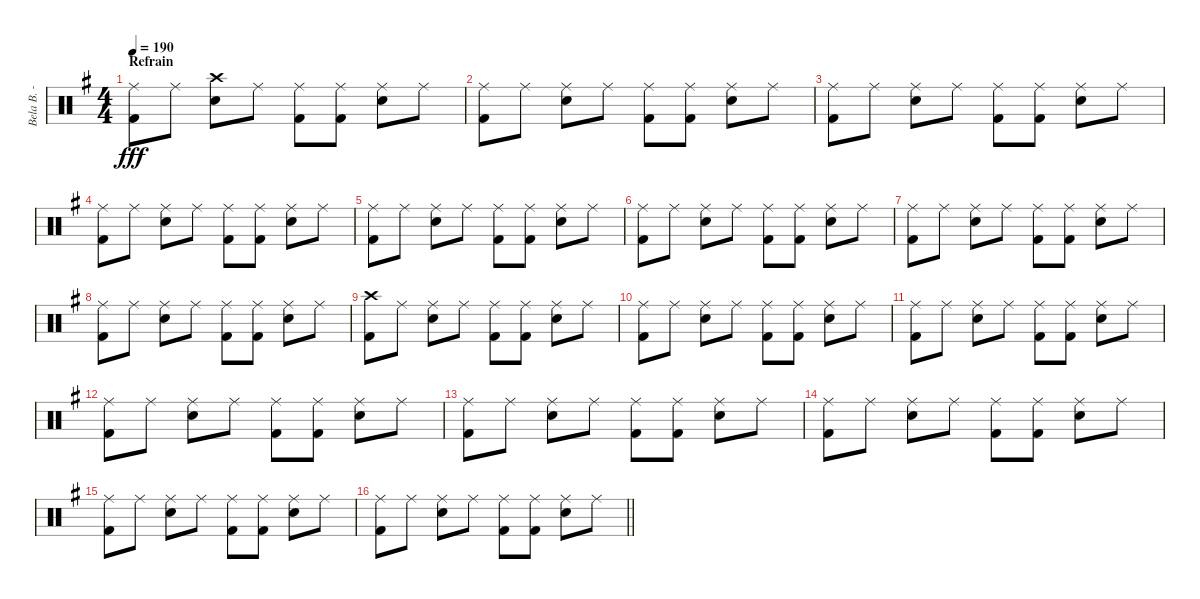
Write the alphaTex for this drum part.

\track ("Bela B. - Drums" "Bela B. - ") {instrument percussion}
\staff {score}
\articulation defaults
\ts (4 4)
\section ("" "Refrain")
\tempo 190
\clef neutral
\ks g
("Ride (middle)" "Kick (hit) 2").8{dy fff} "Ride (middle)".8 ("Crash high (hit)" "Snare (hit) 2").8 "Ride (middle)".8 ("Ride (middle)" "Kick (hit) 2").8 ("Ride (middle)" "Kick (hit) 2").8 ("Ride (middle)" "Snare (hit) 2").8 "Ride (middle)".8 |
("Ride (middle)" "Kick (hit) 2").8 "Ride (middle)".8 ("Ride (middle)" "Snare (hit) 2").8 "Ride (middle)".8 ("Ride (middle)" "Kick (hit) 2").8 ("Ride (middle)" "Kick (hit) 2").8 ("Ride (middle)" "Snare (hit) 2").8 "Ride (middle)".8 |
("Ride (middle)" "Kick (hit) 2").8 "Ride (middle)".8 ("Ride (middle)" "Snare (hit) 2").8 "Ride (middle)".8 ("Ride (middle)" "Kick (hit) 2").8 ("Ride (middle)" "Kick (hit) 2").8 ("Ride (middle)" "Snare (hit) 2").8 "Ride (middle)".8 |
("Ride (middle)" "Kick (hit) 2").8 "Ride (middle)".8 ("Ride (middle)" "Snare (hit) 2").8 "Ride (middle)".8 ("Ride (middle)" "Kick (hit) 2").8 ("Ride (middle)" "Kick (hit) 2").8 ("Ride (middle)" "Snare (hit) 2").8 "Ride (middle)".8 |
("Ride (middle)" "Kick (hit) 2").8 "Ride (middle)".8 ("Ride (middle)" "Snare (hit) 2").8 "Ride (middle)".8 ("Ride (middle)" "Kick (hit) 2").8 ("Ride (middle)" "Kick (hit) 2").8 ("Ride (middle)" "Snare (hit) 2").8 "Ride (middle)".8 |
("Ride (middle)" "Kick (hit) 2").8 "Ride (middle)".8 ("Ride (middle)" "Snare (hit) 2").8 "Ride (middle)".8 ("Ride (middle)" "Kick (hit) 2").8 ("Ride (middle)" "Kick (hit) 2").8 ("Ride (middle)" "Snare (hit) 2").8 "Ride (middle)".8 |
("Ride (middle)" "Kick (hit) 2").8 "Ride (middle)".8 ("Ride (middle)" "Snare (hit) 2").8 "Ride (middle)".8 ("Ride (middle)" "Kick (hit) 2").8 ("Ride (middle)" "Kick (hit) 2").8 ("Ride (middle)" "Snare (hit) 2").8 "Ride (middle)".8 |
("Ride (middle)" "Kick (hit) 2").8 "Ride (middle)".8 ("Ride (middle)" "Snare (hit) 2").8 "Ride (middle)".8 ("Ride (middle)" "Kick (hit) 2").8 ("Ride (middle)" "Kick (hit) 2").8 ("Ride (middle)" "Snare (hit) 2").8 "Ride (middle)".8 |
("Crash high (hit)" "Kick (hit) 2").8 "Ride (middle)".8 ("Ride (middle)" "Snare (hit) 2").8 "Ride (middle)".8 ("Ride (middle)" "Kick (hit) 2").8 ("Ride (middle)" "Kick (hit) 2").8 ("Ride (middle)" "Snare (hit) 2").8 "Ride (middle)".8 |
("Ride (middle)" "Kick (hit) 2").8 "Ride (middle)".8 ("Ride (middle)" "Snare (hit) 2").8 "Ride (middle)".8 ("Ride (middle)" "Kick (hit) 2").8 ("Ride (middle)" "Kick (hit) 2").8 ("Ride (middle)" "Snare (hit) 2").8 "Ride (middle)".8 |
("Ride (middle)" "Kick (hit) 2").8 "Ride (middle)".8 ("Ride (middle)" "Snare (hit) 2").8 "Ride (middle)".8 ("Ride (middle)" "Kick (hit) 2").8 ("Ride (middle)" "Kick (hit) 2").8 ("Ride (middle)" "Snare (hit) 2").8 "Ride (middle)".8 |
("Ride (middle)" "Kick (hit) 2").8 "Ride (middle)".8 ("Ride (middle)" "Snare (hit) 2").8 "Ride (middle)".8 ("Ride (middle)" "Kick (hit) 2").8 ("Ride (middle)" "Kick (hit) 2").8 ("Ride (middle)" "Snare (hit) 2").8 "Ride (middle)".8 |
("Ride (middle)" "Kick (hit) 2").8 "Ride (middle)".8 ("Ride (middle)" "Snare (hit) 2").8 "Ride (middle)".8 ("Ride (middle)" "Kick (hit) 2").8 ("Ride (middle)" "Kick (hit) 2").8 ("Ride (middle)" "Snare (hit) 2").8 "Ride (middle)".8 |
("Ride (middle)" "Kick (hit) 2").8 "Ride (middle)".8 ("Ride (middle)" "Snare (hit) 2").8 "Ride (middle)".8 ("Ride (middle)" "Kick (hit) 2").8 ("Ride (middle)" "Kick (hit) 2").8 ("Ride (middle)" "Snare (hit) 2").8 "Ride (middle)".8 |
("Ride (middle)" "Kick (hit) 2").8 "Ride (middle)".8 ("Ride (middle)" "Snare (hit) 2").8 "Ride (middle)".8 ("Ride (middle)" "Kick (hit) 2").8 ("Ride (middle)" "Kick (hit) 2").8 ("Ride (middle)" "Snare (hit) 2").8 "Ride (middle)".8 |
\barLineRight lightlight
("Ride (middle)" "Kick (hit) 2").8 "Ride (middle)".8 ("Ride (middle)" "Snare (hit) 2").8 "Ride (middle)".8 ("Ride (middle)" "Kick (hit) 2").8 ("Ride (middle)" "Kick (hit) 2").8 ("Ride (middle)" "Snare (hit) 2").8 "Ride (middle)".8
